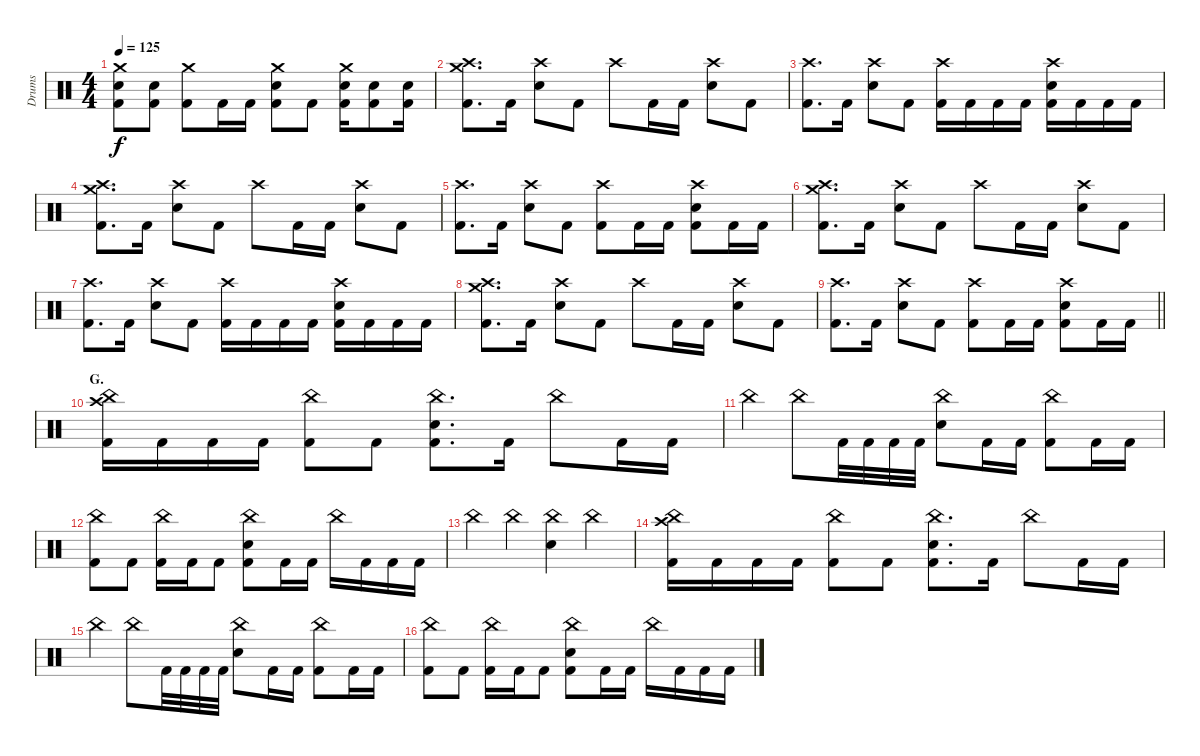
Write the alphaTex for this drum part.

\track ("Drums" "Drums") {instrument percussion}
\staff {score}
\articulation defaults
\ts (4 4)
\tempo 125
\clef neutral
\ks c
("Crash medium (hit)" "Electric Snare (hit)" "Kick (hit) 2").8{dy f} ("Electric Snare (hit)" "Kick (hit) 2").8 ("Crash medium (hit)" "Kick (hit) 2").8 "Kick (hit) 2".16 "Kick (hit) 2".16 ("Crash medium (hit)" "Electric Snare (hit)" "Kick (hit) 2").8 "Kick (hit) 2".8 ("Crash medium (hit)" "Electric Snare (hit)" "Kick (hit) 2").16 ("Electric Snare (hit)" "Kick (hit) 2").8 ("Electric Snare (hit)" "Kick (hit) 2").16 |
("Crash medium (hit)" "Crash high (hit)" "Kick (hit) 2").8{d} "Kick (hit) 2".16 ("Crash high (hit)" "Electric Snare (hit)").8 "Kick (hit) 2".8 "Crash high (hit)".8 "Kick (hit) 2".16 "Kick (hit) 2".16 ("Crash high (hit)" "Electric Snare (hit)").8 "Kick (hit) 2".8 |
("Crash high (hit)" "Kick (hit) 2").8{d} "Kick (hit) 2".16 ("Crash high (hit)" "Electric Snare (hit)").8 "Kick (hit) 2".8 ("Crash high (hit)" "Kick (hit) 2").16 "Kick (hit) 2".16 "Kick (hit) 2".16 "Kick (hit) 2".16 ("Crash high (hit)" "Electric Snare (hit)" "Kick (hit) 2").16 "Kick (hit) 2".16 "Kick (hit) 2".16 "Kick (hit) 2".16 |
("Crash medium (hit)" "Crash high (hit)" "Kick (hit) 2").8{d} "Kick (hit) 2".16 ("Crash high (hit)" "Electric Snare (hit)").8 "Kick (hit) 2".8 "Crash high (hit)".8 "Kick (hit) 2".16 "Kick (hit) 2".16 ("Crash high (hit)" "Electric Snare (hit)").8 "Kick (hit) 2".8 |
("Crash high (hit)" "Kick (hit) 2").8{d} "Kick (hit) 2".16 ("Crash high (hit)" "Electric Snare (hit)").8 "Kick (hit) 2".8 ("Crash high (hit)" "Kick (hit) 2").8 "Kick (hit) 2".16 "Kick (hit) 2".16 ("Crash high (hit)" "Electric Snare (hit)" "Kick (hit) 2").8 "Kick (hit) 2".16 "Kick (hit) 2".16 |
("Crash medium (hit)" "Crash high (hit)" "Kick (hit) 2").8{d} "Kick (hit) 2".16 ("Crash high (hit)" "Electric Snare (hit)").8 "Kick (hit) 2".8 "Crash high (hit)".8 "Kick (hit) 2".16 "Kick (hit) 2".16 ("Crash high (hit)" "Electric Snare (hit)").8 "Kick (hit) 2".8 |
("Crash high (hit)" "Kick (hit) 2").8{d} "Kick (hit) 2".16 ("Crash high (hit)" "Electric Snare (hit)").8 "Kick (hit) 2".8 ("Crash high (hit)" "Kick (hit) 2").16 "Kick (hit) 2".16 "Kick (hit) 2".16 "Kick (hit) 2".16 ("Crash high (hit)" "Electric Snare (hit)" "Kick (hit) 2").16 "Kick (hit) 2".16 "Kick (hit) 2".16 "Kick (hit) 2".16 |
("Crash medium (hit)" "Crash high (hit)" "Kick (hit) 2").8{d} "Kick (hit) 2".16 ("Crash high (hit)" "Electric Snare (hit)").8 "Kick (hit) 2".8 "Crash high (hit)".8 "Kick (hit) 2".16 "Kick (hit) 2".16 ("Crash high (hit)" "Electric Snare (hit)").8 "Kick (hit) 2".8 |
\barLineRight lightlight
("Crash high (hit)" "Kick (hit) 2").8{d} "Kick (hit) 2".16 ("Crash high (hit)" "Electric Snare (hit)").8 "Kick (hit) 2".8 ("Crash high (hit)" "Kick (hit) 2").8 "Kick (hit) 2".16 "Kick (hit) 2".16 ("Crash high (hit)" "Electric Snare (hit)" "Kick (hit) 2").8 "Kick (hit) 2".16 "Kick (hit) 2".16 |
\section ("" "G.")
("China (hit)" "Crash high (hit)" "Kick (hit) 2").16 "Kick (hit) 2".16 "Kick (hit) 2".16 "Kick (hit) 2".16 ("China (hit)" "Kick (hit) 2").8 "Kick (hit) 2".8 ("China (hit)" "Electric Snare (hit)" "Kick (hit) 2").8{d} "Kick (hit) 2".16 "China (hit)".8 "Kick (hit) 2".16 "Kick (hit) 2".16 |
"China (hit)".4 "China (hit)".8 "Kick (hit) 2".32 "Kick (hit) 2".32 "Kick (hit) 2".32 "Kick (hit) 2".32 ("China (hit)" "Electric Snare (hit)").8 "Kick (hit) 2".16 "Kick (hit) 2".16 ("China (hit)" "Kick (hit) 2").8 "Kick (hit) 2".16 "Kick (hit) 2".16 |
("China (hit)" "Kick (hit) 2").8 "Kick (hit) 2".8 ("China (hit)" "Kick (hit) 2").16 "Kick (hit) 2".16 "Kick (hit) 2".8 ("China (hit)" "Electric Snare (hit)" "Kick (hit) 2").8 "Kick (hit) 2".16 "Kick (hit) 2".16 "China (hit)".16 "Kick (hit) 2".16 "Kick (hit) 2".16 "Kick (hit) 2".16 |
"China (hit)".4 "China (hit)".4 ("China (hit)" "Electric Snare (hit)").4 "China (hit)".4 |
("China (hit)" "Crash high (hit)" "Kick (hit) 2").16 "Kick (hit) 2".16 "Kick (hit) 2".16 "Kick (hit) 2".16 ("China (hit)" "Kick (hit) 2").8 "Kick (hit) 2".8 ("China (hit)" "Electric Snare (hit)" "Kick (hit) 2").8{d} "Kick (hit) 2".16 "China (hit)".8 "Kick (hit) 2".16 "Kick (hit) 2".16 |
"China (hit)".4 "China (hit)".8 "Kick (hit) 2".32 "Kick (hit) 2".32 "Kick (hit) 2".32 "Kick (hit) 2".32 ("China (hit)" "Electric Snare (hit)").8 "Kick (hit) 2".16 "Kick (hit) 2".16 ("China (hit)" "Kick (hit) 2").8 "Kick (hit) 2".16 "Kick (hit) 2".16 |
("China (hit)" "Kick (hit) 2").8 "Kick (hit) 2".8 ("China (hit)" "Kick (hit) 2").16 "Kick (hit) 2".16 "Kick (hit) 2".8 ("China (hit)" "Electric Snare (hit)" "Kick (hit) 2").8 "Kick (hit) 2".16 "Kick (hit) 2".16 "China (hit)".16 "Kick (hit) 2".16 "Kick (hit) 2".16 "Kick (hit) 2".16
